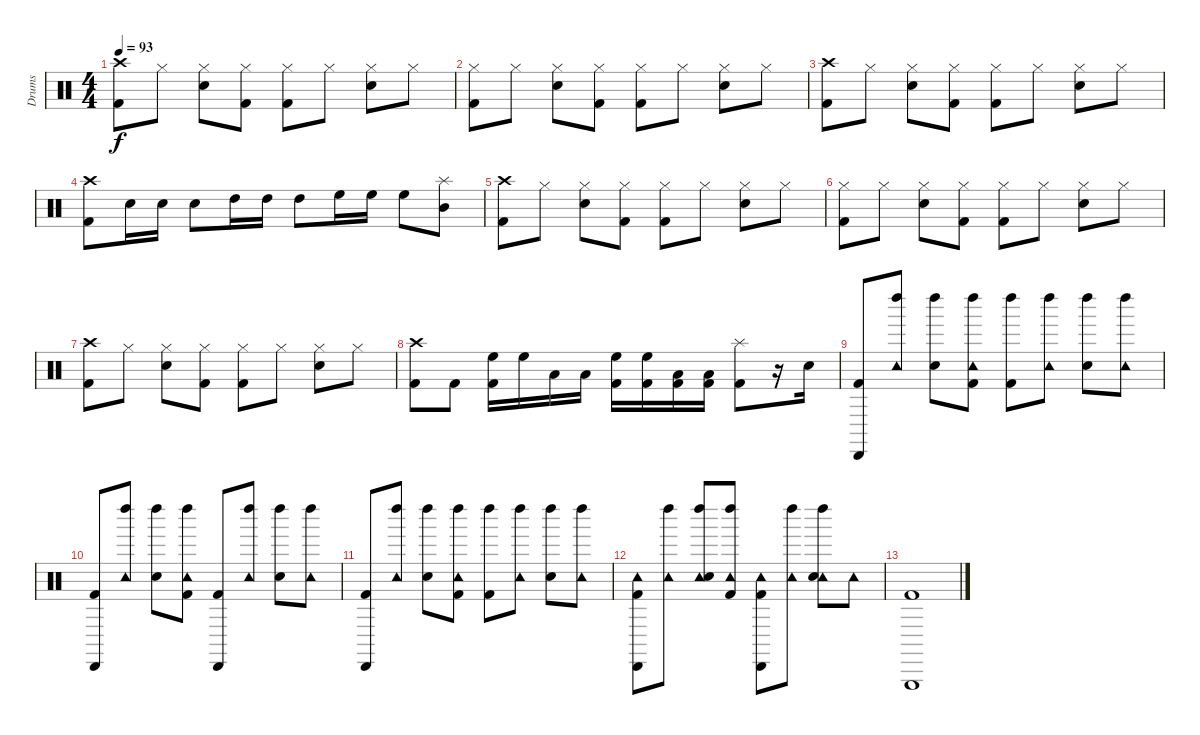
\track ("Drums" "Drums") {instrument percussion}
\staff {score}
\articulation defaults
\ts (4 4)
\tempo 93
\clef neutral
\ks c
("Crash high (hit)" "Kick (hit) 2").8{dy f} "Hi-Hat (closed)".8 ("Hi-Hat (closed)" "Electric Snare (hit)").8 ("Hi-Hat (closed)" "Kick (hit) 2").8 ("Hi-Hat (closed)" "Kick (hit) 2").8 "Hi-Hat (closed)".8 ("Hi-Hat (closed)" "Electric Snare (hit)").8 "Hi-Hat (closed)".8 |
("Hi-Hat (closed)" "Kick (hit) 2").8 "Hi-Hat (closed)".8 ("Hi-Hat (closed)" "Electric Snare (hit)").8 ("Hi-Hat (closed)" "Kick (hit) 2").8 ("Hi-Hat (closed)" "Kick (hit) 2").8 "Hi-Hat (closed)".8 ("Hi-Hat (closed)" "Electric Snare (hit)").8 "Hi-Hat (closed)".8 |
("Crash high (hit)" "Kick (hit) 2").8 "Hi-Hat (closed)".8 ("Hi-Hat (closed)" "Electric Snare (hit)").8 ("Hi-Hat (closed)" "Kick (hit) 2").8 ("Hi-Hat (closed)" "Kick (hit) 2").8 "Hi-Hat (closed)".8 ("Hi-Hat (closed)" "Electric Snare (hit)").8 "Hi-Hat (closed)".8 |
("Crash high (hit)" "Kick (hit) 2").8 "Electric Snare (hit)".16 "Electric Snare (hit)".16 "Electric Snare (hit)".8 "High Tom (hit)".16 "High Tom (hit)".16 "High Tom (hit)".8 "High Floor Tom (hit)".16 "High Floor Tom (hit)".16 "High Floor Tom (hit)".8 ("Splash (hit)" "Mid Tom (hit)").8 |
("Crash high (hit)" "Kick (hit) 2").8 "Hi-Hat (closed)".8 ("Hi-Hat (closed)" "Electric Snare (hit)").8 ("Hi-Hat (closed)" "Kick (hit) 2").8 ("Hi-Hat (closed)" "Kick (hit) 2").8 "Hi-Hat (closed)".8 ("Hi-Hat (closed)" "Electric Snare (hit)").8 "Hi-Hat (closed)".8 |
("Hi-Hat (closed)" "Kick (hit) 2").8 "Hi-Hat (closed)".8 ("Hi-Hat (closed)" "Electric Snare (hit)").8 ("Hi-Hat (closed)" "Kick (hit) 2").8 ("Hi-Hat (closed)" "Kick (hit) 2").8 "Hi-Hat (closed)".8 ("Hi-Hat (closed)" "Electric Snare (hit)").8 "Hi-Hat (closed)".8 |
("Crash high (hit)" "Kick (hit) 2").8 "Hi-Hat (closed)".8 ("Hi-Hat (closed)" "Electric Snare (hit)").8 ("Hi-Hat (closed)" "Kick (hit) 2").8 ("Hi-Hat (closed)" "Kick (hit) 2").8 "Hi-Hat (closed)".8 ("Hi-Hat (closed)" "Electric Snare (hit)").8 "Hi-Hat (closed)".8 |
("Crash high (hit)" "Kick (hit) 2").8 "Kick (hit) 2".8 ("High Floor Tom (hit)" "Kick (hit) 2").16 "High Floor Tom (hit)".16 "Low Tom (hit)".16 "Low Tom (hit)".16 ("High Floor Tom (hit)" "Kick (hit) 2").16 ("High Floor Tom (hit)" "Kick (hit) 2").16 ("Low Tom (hit)" "Kick (hit) 2").16 ("Low Tom (hit)" "Kick (hit) 2").16 ("Splash (hit)" "Kick (hit) 2").8 r.16 "Electric Snare (hit)".16 |
("Cabasa (hit)" "Kick (hit) 2").8 ("Left Maraca (hit)" "Tambourine (hit)").8 ("Left Maraca (hit)" "Electric Snare (hit)").8 ("Left Maraca (hit)" "Tambourine (hit)" "Kick (hit) 2").8 ("Left Maraca (hit)" "Kick (hit) 2").8 ("Left Maraca (hit)" "Tambourine (hit)").8 ("Left Maraca (hit)" "Electric Snare (hit)").8 ("Left Maraca (hit)" "Tambourine (hit)").8 |
("Cabasa (hit)" "Kick (hit) 2").8 ("Left Maraca (hit)" "Tambourine (hit)").8 ("Left Maraca (hit)" "Electric Snare (hit)").8 ("Left Maraca (hit)" "Tambourine (hit)" "Kick (hit) 2").8 ("Cabasa (hit)" "Kick (hit) 2").8 ("Left Maraca (hit)" "Tambourine (hit)").8 ("Left Maraca (hit)" "Electric Snare (hit)").8 ("Left Maraca (hit)" "Tambourine (hit)").8 |
("Cabasa (hit)" "Kick (hit) 2").8 ("Left Maraca (hit)" "Tambourine (hit)").8 ("Left Maraca (hit)" "Electric Snare (hit)").8 ("Left Maraca (hit)" "Tambourine (hit)" "Kick (hit) 2").8 ("Left Maraca (hit)" "Kick (hit) 2").8 ("Left Maraca (hit)" "Tambourine (hit)").8 ("Left Maraca (hit)" "Electric Snare (hit)").8 ("Left Maraca (hit)" "Tambourine (hit)").8 |
("Cabasa (hit)" "Tambourine (hit)" "Kick (hit) 2").8 ("Left Maraca (hit)" "Tambourine (hit)").8 ("Left Maraca (hit)" "Tambourine (hit)" "Electric Snare (hit)").8 ("Left Maraca (hit)" "Tambourine (hit)" "Kick (hit) 2").8 ("Cabasa (hit)" "Tambourine (hit)" "Kick (hit) 2").8 ("Left Maraca (hit)" "Tambourine (hit)").8 ("Left Maraca (hit)" "Tambourine (hit)" "Electric Snare (hit)").8 "Tambourine (hit)".8 |
("Triangle (hit)" "Kick (hit) 2").1
